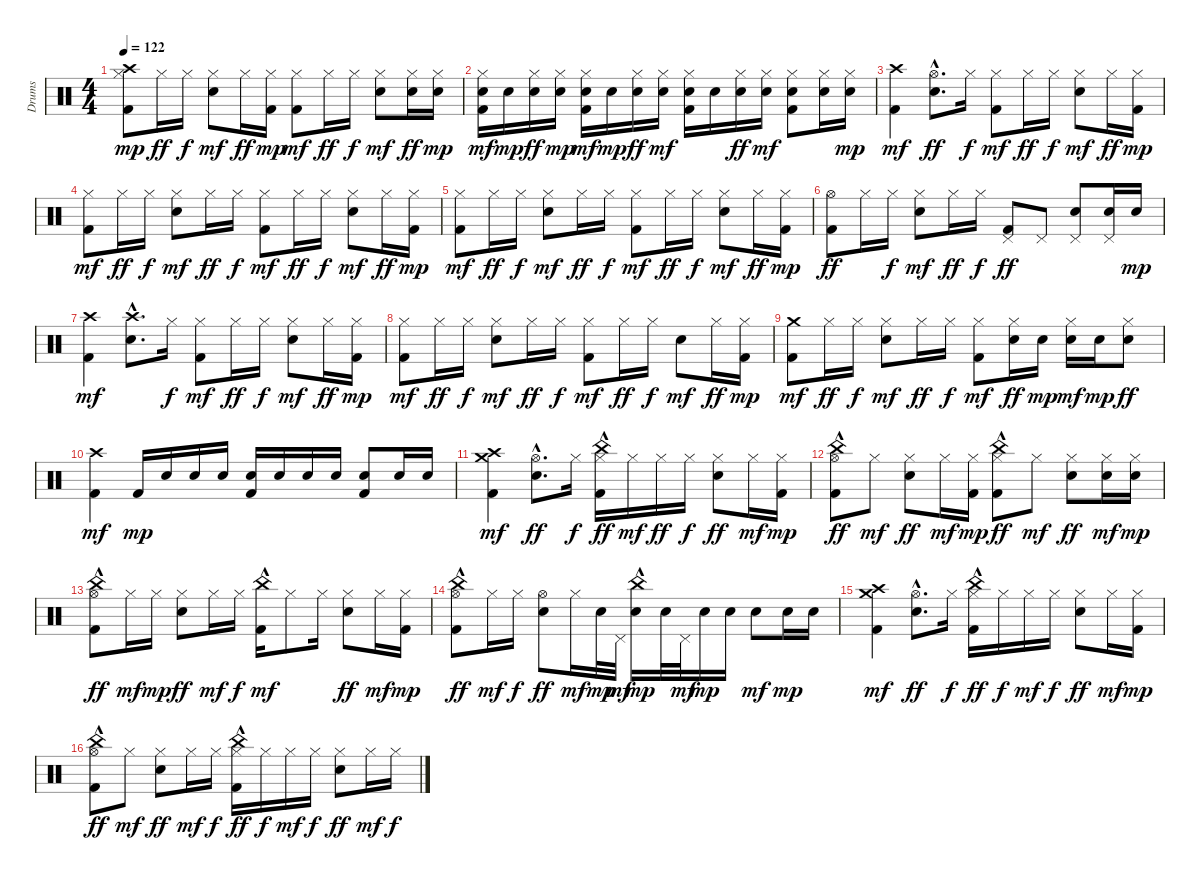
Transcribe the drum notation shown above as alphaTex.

\track ("Drums" "Drums") {instrument percussion}
\staff {score}
\articulation defaults
\ts (4 4)
\tempo 122
\clef neutral
\ks c
("Hi-Hat (closed)" "Kick (hit) 2" "Crash high (hit)").8{dy mp} "Hi-Hat (closed)".16{dy ff} "Hi-Hat (closed)".16{dy f} ("Hi-Hat (closed)" "Snare (hit) 2").8{dy mf} "Hi-Hat (closed)".16{dy ff} ("Hi-Hat (closed)" "Kick (hit) 2").16{dy mp} ("Hi-Hat (closed)" "Kick (hit) 2").8{dy mf} "Hi-Hat (closed)".16{dy ff} "Hi-Hat (closed)".16{dy f} ("Hi-Hat (closed)" "Snare (hit) 2").8{dy mf} ("Snare (hit) 2" "Hi-Hat (closed)").16{dy ff} ("Hi-Hat (closed)" "Snare (hit) 2").16{dy mp} |
("Hi-Hat (closed)" "Snare (hit) 2" "Kick (hit) 2").16{dy mf} "Snare (hit) 2".16{dy mp} ("Snare (hit) 2" "Hi-Hat (closed)").16{dy ff} ("Hi-Hat (closed)" "Snare (hit) 2").16{dy mp} ("Hi-Hat (closed)" "Snare (hit) 2" "Kick (hit) 2").16{dy mf} "Snare (hit) 2".16{dy mp} ("Snare (hit) 2" "Hi-Hat (closed)").16{dy ff} ("Hi-Hat (closed)" "Snare (hit) 2").16{dy mf} ("Hi-Hat (closed)" "Snare (hit) 2" "Kick (hit) 2").16 "Snare (hit) 2".16 ("Snare (hit) 2" "Hi-Hat (closed)").16{dy ff} ("Snare (hit) 2" "Hi-Hat (closed)").16{dy mf} ("Snare (hit) 2" "Hi-Hat (closed)" "Kick (hit) 2").8 ("Hi-Hat (closed)" "Snare (hit) 2").16 ("Snare (hit) 2" "Hi-Hat (closed)").16{dy mp} |
("Kick (hit) 2" "Crash high (hit)").4{dy mf} ("Snare (hit) 2"{hac} "Hi-Hat (open)"{hac}).8{d dy ff} "Hi-Hat (closed)".16{dy f} ("Kick (hit) 2" "Hi-Hat (closed)").8{dy mf} "Hi-Hat (closed)".16{dy ff} "Hi-Hat (closed)".16{dy f} ("Snare (hit) 2" "Hi-Hat (closed)").8{dy mf} "Hi-Hat (closed)".16{dy ff} ("Kick (hit) 2" "Hi-Hat (closed)").16{dy mp} |
("Kick (hit) 2" "Hi-Hat (closed)").8{dy mf} "Hi-Hat (closed)".16{dy ff} "Hi-Hat (closed)".16{dy f} ("Snare (hit) 2" "Hi-Hat (closed)").8{dy mf} "Hi-Hat (closed)".16{dy ff} "Hi-Hat (closed)".16{dy f} ("Kick (hit) 2" "Hi-Hat (closed)").8{dy mf} "Hi-Hat (closed)".16{dy ff} "Hi-Hat (closed)".16{dy f} ("Snare (hit) 2" "Hi-Hat (closed)").8{dy mf} "Hi-Hat (closed)".16{dy ff} ("Kick (hit) 2" "Hi-Hat (closed)").16{dy mp} |
("Kick (hit) 2" "Hi-Hat (closed)").8{dy mf} "Hi-Hat (closed)".16{dy ff} "Hi-Hat (closed)".16{dy f} ("Snare (hit) 2" "Hi-Hat (closed)").8{dy mf} "Hi-Hat (closed)".16{dy ff} "Hi-Hat (closed)".16{dy f} ("Kick (hit) 2" "Hi-Hat (closed)").8{dy mf} "Hi-Hat (closed)".16{dy ff} "Hi-Hat (closed)".16{dy f} ("Snare (hit) 2" "Hi-Hat (closed)").8{dy mf} "Hi-Hat (closed)".16{dy ff} ("Kick (hit) 2" "Hi-Hat (closed)").16{dy mp} |
("Kick (hit) 2" "Hi-Hat (open)").8{dy ff} "Hi-Hat (closed)".16 "Hi-Hat (closed)".16{dy f} ("Snare (hit) 2" "Hi-Hat (closed)").8{dy mf} "Hi-Hat (closed)".16{dy ff} "Hi-Hat (closed)".16{dy f} ("Kick (hit) 2" "Pedal Hi-Hat (hit)").8{dy ff} "Pedal Hi-Hat (hit)".8 ("Snare (hit) 2" "Pedal Hi-Hat (hit)").8 ("Snare (hit) 2" "Pedal Hi-Hat (hit)").16 "Snare (hit) 2".16{dy mp} |
("Kick (hit) 2" "Crash high (hit)").4{dy mf} ("Snare (hit) 2" "Crash high (hit)"{hac}).8{d} "Hi-Hat (closed)".16{dy f} ("Kick (hit) 2" "Hi-Hat (closed)").8{dy mf} "Hi-Hat (closed)".16{dy ff} "Hi-Hat (closed)".16{dy f} ("Snare (hit) 2" "Hi-Hat (closed)").8{dy mf} "Hi-Hat (closed)".16{dy ff} ("Kick (hit) 2" "Hi-Hat (closed)").16{dy mp} |
("Kick (hit) 2" "Hi-Hat (closed)").8{dy mf} "Hi-Hat (closed)".16{dy ff} "Hi-Hat (closed)".16{dy f} ("Snare (hit) 2" "Hi-Hat (closed)").8{dy mf} "Hi-Hat (closed)".16{dy ff} "Hi-Hat (closed)".16{dy f} ("Kick (hit) 2" "Hi-Hat (closed)").8{dy mf} "Hi-Hat (closed)".16{dy ff} "Hi-Hat (closed)".16{dy f} "Snare (hit) 2".8{dy mf} "Hi-Hat (closed)".16{dy ff} ("Kick (hit) 2" "Hi-Hat (closed)").16{dy mp} |
("Kick (hit) 2" "Crash medium (hit)").8{dy mf} "Hi-Hat (closed)".16{dy ff} "Hi-Hat (closed)".16{dy f} ("Snare (hit) 2" "Hi-Hat (closed)").8{dy mf} "Hi-Hat (closed)".16{dy ff} "Hi-Hat (closed)".16{dy f} ("Kick (hit) 2" "Hi-Hat (closed)").8{dy mf} ("Snare (hit) 2" "Hi-Hat (closed)").16{dy ff} "Snare (hit) 2".16{dy mp} ("Snare (hit) 2" "Hi-Hat (closed)").16{dy mf} "Snare (hit) 2".16{dy mp} ("Snare (hit) 2" "Hi-Hat (closed)").8{dy ff} |
("Kick (hit) 2" "Crash high (hit)").4{dy mf} "Kick (hit) 2".16{dy mp} "Snare (hit) 2".16 "Snare (hit) 2".16 "Snare (hit) 2".16 ("Kick (hit) 2" "Snare (hit) 2").16 "Snare (hit) 2".16 "Snare (hit) 2".16 "Snare (hit) 2".16 ("Kick (hit) 2" "Snare (hit) 2").8 "Snare (hit) 2".16 "Snare (hit) 2".16 |
("Kick (hit) 2" "Crash high (hit)" "Crash medium (hit)").4{dy mf} ("Snare (hit) 2"{hac} "Hi-Hat (open)"{hac}).8{d dy ff} "Hi-Hat (closed)".16{dy f} ("China (hit)"{hac} "Kick (hit) 2" "Hi-Hat (closed)").16{dy ff} "Hi-Hat (closed)".16{dy mf} "Hi-Hat (closed)".16{dy ff} "Hi-Hat (closed)".16{dy f} ("Snare (hit) 2" "Hi-Hat (closed)").8{dy ff} "Hi-Hat (closed)".16{dy mf} ("Hi-Hat (closed)" "Kick (hit) 2").16{dy mp} |
("China (hit)"{hac} "Kick (hit) 2" "Hi-Hat (open)").8{dy ff} "Hi-Hat (closed)".8{dy mf} ("Snare (hit) 2" "Hi-Hat (closed)").8{dy ff} "Hi-Hat (closed)".16{dy mf} ("Hi-Hat (closed)" "Kick (hit) 2").16{dy mp} ("China (hit)"{hac} "Kick (hit) 2" "Hi-Hat (closed)").8{dy ff} "Hi-Hat (closed)".8{dy mf} ("Snare (hit) 2" "Hi-Hat (closed)").8{dy ff} ("Snare (hit) 2" "Hi-Hat (closed)").16{dy mf} ("Snare (hit) 2" "Hi-Hat (closed)").16{dy mp} |
("China (hit)"{hac} "Kick (hit) 2" "Hi-Hat (open)").8{dy ff} "Hi-Hat (closed)".16{dy mf} "Hi-Hat (closed)".16{dy mp} ("Snare (hit) 2" "Hi-Hat (closed)").8{dy ff} "Hi-Hat (closed)".16{dy mf} "Hi-Hat (closed)".16{dy f} ("China (hit)"{hac} "Kick (hit) 2").16{dy mf} "Hi-Hat (closed)".8 "Hi-Hat (closed)".16 ("Snare (hit) 2" "Hi-Hat (closed)").8{dy ff} "Hi-Hat (closed)".16{dy mf} ("Hi-Hat (closed)" "Kick (hit) 2").16{dy mp} |
("China (hit)"{hac} "Kick (hit) 2" "Hi-Hat (open)").8{dy ff} "Hi-Hat (closed)".16{dy mf} "Hi-Hat (closed)".16{dy f} ("Snare (hit) 2" "Hi-Hat (open)").8{dy ff} "Hi-Hat (closed)".16{dy mf} "Snare (hit) 2".32{dy mp} "Pedal Hi-Hat (hit)".32{dy mf} ("China (hit)"{hac} "Snare (hit) 2").16{dy mp} "Snare (hit) 2".32 "Pedal Hi-Hat (hit)".32{dy mf} "Snare (hit) 2".16{dy mp} "Snare (hit) 2".16 "Snare (hit) 2".8{dy mf} "Snare (hit) 2".16{dy mp} "Snare (hit) 2".16 |
("Kick (hit) 2" "Crash medium (hit)" "Crash high (hit)").4{dy mf} ("Snare (hit) 2"{hac} "Hi-Hat (open)"{hac}).8{d dy ff} "Hi-Hat (closed)".16{dy f} ("China (hit)"{hac} "Kick (hit) 2" "Hi-Hat (closed)").16{dy ff} "Hi-Hat (closed)".16{dy f} "Hi-Hat (closed)".16{dy mf} "Hi-Hat (closed)".16{dy f} ("Snare (hit) 2" "Hi-Hat (closed)").8{dy ff} "Hi-Hat (closed)".16{dy mf} ("Hi-Hat (closed)" "Kick (hit) 2").16{dy mp} |
("China (hit)"{hac} "Kick (hit) 2" "Hi-Hat (open)").8{dy ff} "Hi-Hat (closed)".8{dy mf} ("Snare (hit) 2" "Hi-Hat (closed)").8{dy ff} "Hi-Hat (closed)".16{dy mf} "Hi-Hat (closed)".16{dy f} ("China (hit)"{hac} "Kick (hit) 2" "Hi-Hat (closed)").16{dy ff} "Hi-Hat (closed)".16{dy f} "Hi-Hat (closed)".16{dy mf} "Hi-Hat (closed)".16{dy f} ("Snare (hit) 2" "Hi-Hat (closed)").8{dy ff} "Hi-Hat (closed)".16{dy mf} "Hi-Hat (closed)".16{dy f}
